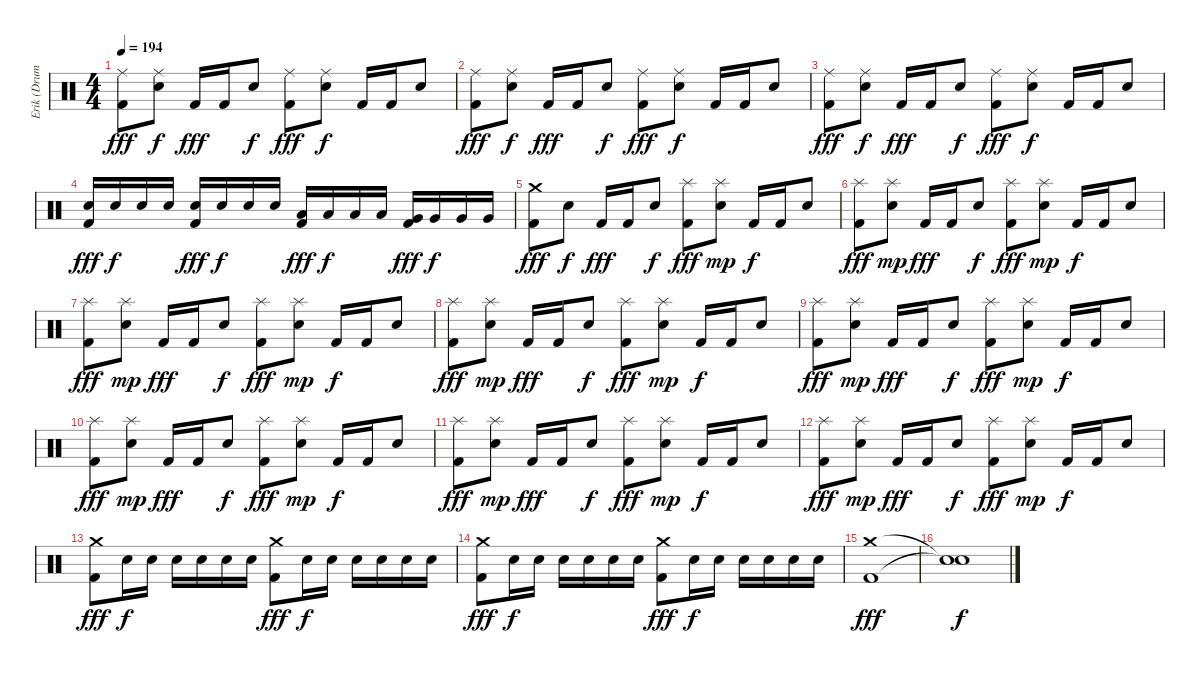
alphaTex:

\track ("Erik (Drums)" "Erik (Drum") {instrument percussion}
\staff {score}
\articulation defaults
\ts (4 4)
\tempo 194
\clef neutral
\ks c
("Ride (middle)" "Kick (hit) 2").8{dy fff} ("Ride (middle)" "Electric Snare (hit)").8{dy f} "Kick (hit) 2".16{dy fff} "Kick (hit) 2".16 "Electric Snare (hit)".8{dy f} ("Ride (middle)" "Kick (hit) 2").8{dy fff} ("Ride (middle)" "Electric Snare (hit)").8{dy f} "Kick (hit) 2".16 "Kick (hit) 2".16 "Electric Snare (hit)".8 |
("Ride (middle)" "Kick (hit) 2").8{dy fff} ("Ride (middle)" "Electric Snare (hit)").8{dy f} "Kick (hit) 2".16{dy fff} "Kick (hit) 2".16 "Electric Snare (hit)".8{dy f} ("Ride (middle)" "Kick (hit) 2").8{dy fff} ("Ride (middle)" "Electric Snare (hit)").8{dy f} "Kick (hit) 2".16 "Kick (hit) 2".16 "Electric Snare (hit)".8 |
("Ride (middle)" "Kick (hit) 2").8{dy fff} ("Ride (middle)" "Electric Snare (hit)").8{dy f} "Kick (hit) 2".16{dy fff} "Kick (hit) 2".16 "Electric Snare (hit)".8{dy f} ("Ride (middle)" "Kick (hit) 2").8{dy fff} ("Ride (middle)" "Electric Snare (hit)").8{dy f} "Kick (hit) 2".16 "Kick (hit) 2".16 "Electric Snare (hit)".8 |
("Electric Snare (hit)" "Kick (hit) 2").16{dy fff} "Electric Snare (hit)".16{dy f} "Electric Snare (hit)".16 "Electric Snare (hit)".16 ("Electric Snare (hit)" "Kick (hit) 2").16{dy fff} "Electric Snare (hit)".16{dy f} "Electric Snare (hit)".16 "Electric Snare (hit)".16 ("Low Tom (hit)" "Kick (hit) 2").16{dy fff} "Low Tom (hit)".16{dy f} "Low Tom (hit)".16 "Low Tom (hit)".16 ("Very Low Tom (hit)" "Kick (hit) 2").16{dy fff} "Very Low Tom (hit)".16{dy f} "Very Low Tom (hit)".16 "Very Low Tom (hit)".16 |
("Crash medium (hit)" "Kick (hit) 2").8{dy fff} "Electric Snare (hit)".8{dy f} "Kick (hit) 2".16{dy fff} "Kick (hit) 2".16 "Electric Snare (hit)".8{dy f} ("Splash (hit)" "Kick (hit) 2").8{dy fff} ("Splash (hit)" "Electric Snare (hit)").8{dy mp} "Kick (hit) 2".16{dy f} "Kick (hit) 2".16 "Electric Snare (hit)".8 |
("Splash (hit)" "Kick (hit) 2").8{dy fff} ("Splash (hit)" "Electric Snare (hit)").8{dy mp} "Kick (hit) 2".16{dy fff} "Kick (hit) 2".16 "Electric Snare (hit)".8{dy f} ("Splash (hit)" "Kick (hit) 2").8{dy fff} ("Splash (hit)" "Electric Snare (hit)").8{dy mp} "Kick (hit) 2".16{dy f} "Kick (hit) 2".16 "Electric Snare (hit)".8 |
("Splash (hit)" "Kick (hit) 2").8{dy fff} ("Splash (hit)" "Electric Snare (hit)").8{dy mp} "Kick (hit) 2".16{dy fff} "Kick (hit) 2".16 "Electric Snare (hit)".8{dy f} ("Splash (hit)" "Kick (hit) 2").8{dy fff} ("Splash (hit)" "Electric Snare (hit)").8{dy mp} "Kick (hit) 2".16{dy f} "Kick (hit) 2".16 "Electric Snare (hit)".8 |
("Splash (hit)" "Kick (hit) 2").8{dy fff} ("Splash (hit)" "Electric Snare (hit)").8{dy mp} "Kick (hit) 2".16{dy fff} "Kick (hit) 2".16 "Electric Snare (hit)".8{dy f} ("Splash (hit)" "Kick (hit) 2").8{dy fff} ("Splash (hit)" "Electric Snare (hit)").8{dy mp} "Kick (hit) 2".16{dy f} "Kick (hit) 2".16 "Electric Snare (hit)".8 |
("Splash (hit)" "Kick (hit) 2").8{dy fff} ("Splash (hit)" "Electric Snare (hit)").8{dy mp} "Kick (hit) 2".16{dy fff} "Kick (hit) 2".16 "Electric Snare (hit)".8{dy f} ("Splash (hit)" "Kick (hit) 2").8{dy fff} ("Splash (hit)" "Electric Snare (hit)").8{dy mp} "Kick (hit) 2".16{dy f} "Kick (hit) 2".16 "Electric Snare (hit)".8 |
("Splash (hit)" "Kick (hit) 2").8{dy fff} ("Splash (hit)" "Electric Snare (hit)").8{dy mp} "Kick (hit) 2".16{dy fff} "Kick (hit) 2".16 "Electric Snare (hit)".8{dy f} ("Splash (hit)" "Kick (hit) 2").8{dy fff} ("Splash (hit)" "Electric Snare (hit)").8{dy mp} "Kick (hit) 2".16{dy f} "Kick (hit) 2".16 "Electric Snare (hit)".8 |
("Splash (hit)" "Kick (hit) 2").8{dy fff} ("Splash (hit)" "Electric Snare (hit)").8{dy mp} "Kick (hit) 2".16{dy fff} "Kick (hit) 2".16 "Electric Snare (hit)".8{dy f} ("Splash (hit)" "Kick (hit) 2").8{dy fff} ("Splash (hit)" "Electric Snare (hit)").8{dy mp} "Kick (hit) 2".16{dy f} "Kick (hit) 2".16 "Electric Snare (hit)".8 |
("Splash (hit)" "Kick (hit) 2").8{dy fff} ("Splash (hit)" "Electric Snare (hit)").8{dy mp} "Kick (hit) 2".16{dy fff} "Kick (hit) 2".16 "Electric Snare (hit)".8{dy f} ("Splash (hit)" "Kick (hit) 2").8{dy fff} ("Splash (hit)" "Electric Snare (hit)").8{dy mp} "Kick (hit) 2".16{dy f} "Kick (hit) 2".16 "Electric Snare (hit)".8 |
("Crash medium (hit)" "Kick (hit) 2").8{dy fff} "Electric Snare (hit)".16{dy f} "Electric Snare (hit)".16 "Electric Snare (hit)".16 "Electric Snare (hit)".16 "Electric Snare (hit)".16 "Electric Snare (hit)".16 ("Crash medium (hit)" "Kick (hit) 2").8{dy fff} "Electric Snare (hit)".16{dy f} "Electric Snare (hit)".16 "Electric Snare (hit)".16 "Electric Snare (hit)".16 "Electric Snare (hit)".16 "Electric Snare (hit)".16 |
("Crash medium (hit)" "Kick (hit) 2").8{dy fff} "Electric Snare (hit)".16{dy f} "Electric Snare (hit)".16 "Electric Snare (hit)".16 "Electric Snare (hit)".16 "Electric Snare (hit)".16 "Electric Snare (hit)".16 ("Crash medium (hit)" "Kick (hit) 2").8{dy fff} "Electric Snare (hit)".16{dy f} "Electric Snare (hit)".16 "Electric Snare (hit)".16 "Electric Snare (hit)".16 "Electric Snare (hit)".16 "Electric Snare (hit)".16 |
("Crash medium (hit)" "Kick (hit) 2").1{dy fff} |
("Snare (hit)"{t} "Snare (hit)"{t}).1{dy f}
